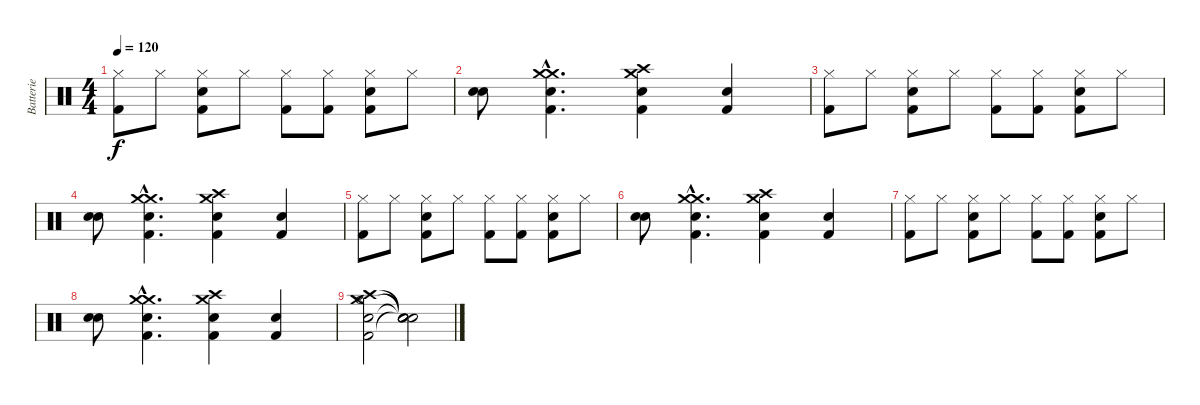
\track ("Batterie" "Batterie") {instrument percussion}
\staff {score}
\articulation defaults
\ts (4 4)
\tempo 120
\clef neutral
\ks c
("Hi-Hat (closed)" "Kick (hit) 2").8{dy f} "Hi-Hat (closed)".8 ("Hi-Hat (closed)" "Snare (hit) 2" "Kick (hit) 2").8 "Hi-Hat (closed)".8 ("Hi-Hat (closed)" "Kick (hit) 2").8 ("Hi-Hat (closed)" "Kick (hit) 2").8 ("Hi-Hat (closed)" "Snare (hit) 2" "Kick (hit) 2").8 "Hi-Hat (closed)".8 |
("Snare (hit) 2" "Snare (hit) 2").8 ("Crash medium (hit)"{hac} "Crash medium (hit)"{hac} "Snare (hit) 2"{hac} "Kick (hit) 2"{hac}).4{d} ("Crash medium (hit)" "Crash high (hit)" "Snare (hit) 2" "Kick (hit) 2").4 ("Snare (hit) 2" "Kick (hit) 2").4 |
("Hi-Hat (closed)" "Kick (hit) 2").8 "Hi-Hat (closed)".8 ("Hi-Hat (closed)" "Snare (hit) 2" "Kick (hit) 2").8 "Hi-Hat (closed)".8 ("Hi-Hat (closed)" "Kick (hit) 2").8 ("Hi-Hat (closed)" "Kick (hit) 2").8 ("Hi-Hat (closed)" "Snare (hit) 2" "Kick (hit) 2").8 "Hi-Hat (closed)".8 |
("Snare (hit) 2" "Snare (hit) 2").8 ("Crash medium (hit)"{hac} "Crash medium (hit)"{hac} "Snare (hit) 2"{hac} "Kick (hit) 2"{hac}).4{d} ("Crash medium (hit)" "Crash high (hit)" "Snare (hit) 2" "Kick (hit) 2").4 ("Snare (hit) 2" "Kick (hit) 2").4 |
("Hi-Hat (closed)" "Kick (hit) 2").8 "Hi-Hat (closed)".8 ("Hi-Hat (closed)" "Snare (hit) 2" "Kick (hit) 2").8 "Hi-Hat (closed)".8 ("Hi-Hat (closed)" "Kick (hit) 2").8 ("Hi-Hat (closed)" "Kick (hit) 2").8 ("Hi-Hat (closed)" "Snare (hit) 2" "Kick (hit) 2").8 "Hi-Hat (closed)".8 |
("Snare (hit) 2" "Snare (hit) 2").8 ("Crash medium (hit)"{hac} "Crash medium (hit)"{hac} "Snare (hit) 2"{hac} "Kick (hit) 2"{hac}).4{d} ("Crash medium (hit)" "Crash high (hit)" "Snare (hit) 2" "Kick (hit) 2").4 ("Snare (hit) 2" "Kick (hit) 2").4 |
("Hi-Hat (closed)" "Kick (hit) 2").8 "Hi-Hat (closed)".8 ("Hi-Hat (closed)" "Snare (hit) 2" "Kick (hit) 2").8 "Hi-Hat (closed)".8 ("Hi-Hat (closed)" "Kick (hit) 2").8 ("Hi-Hat (closed)" "Kick (hit) 2").8 ("Hi-Hat (closed)" "Snare (hit) 2" "Kick (hit) 2").8 "Hi-Hat (closed)".8 |
("Snare (hit) 2" "Snare (hit) 2").8 ("Crash medium (hit)"{hac} "Crash medium (hit)"{hac} "Snare (hit) 2"{hac} "Kick (hit) 2"{hac}).4{d} ("Crash medium (hit)" "Crash high (hit)" "Snare (hit) 2" "Kick (hit) 2").4 ("Snare (hit) 2" "Kick (hit) 2").4 |
("Crash medium (hit)" "Crash high (hit)" "Snare (hit) 2" "Hi-Hat (open)" "Kick (hit) 2").2 ("Snare (hit)"{t} "Snare (hit)"{t} "Snare (hit)"{t} "Snare (hit)"{t} "Snare (hit)"{t}).2
